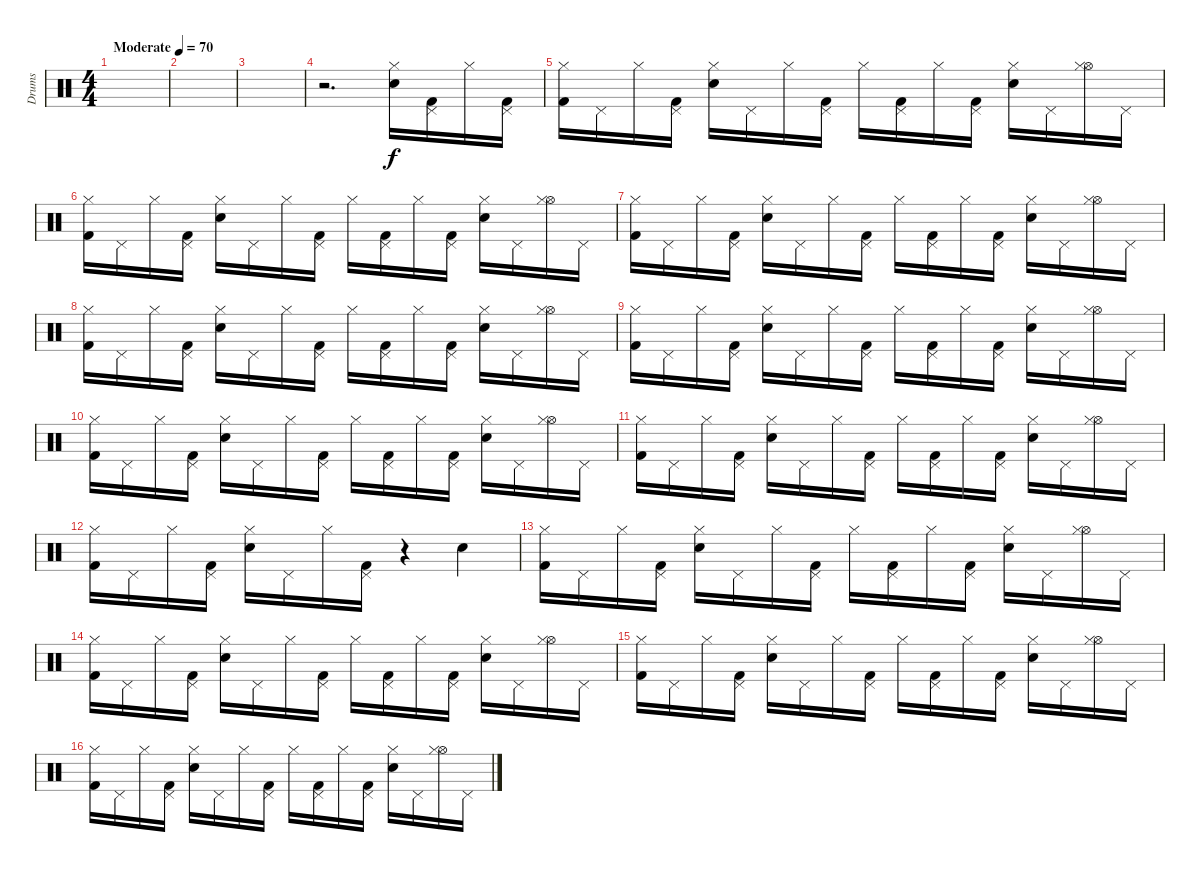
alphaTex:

\track ("Drums" "Drums") {instrument percussion}
\staff {score}
\articulation defaults
\ts (4 4)
\tempo (70 "Moderate")
\clef neutral
\ks c
|
|
|
r.2{d} ("Electric Snare (hit)" "Hi-Hat (closed)").16 ("Kick (hit) 2" "Pedal Hi-Hat (hit)").16 "Hi-Hat (closed)".16 ("Kick (hit) 2" "Pedal Hi-Hat (hit)").16 |
("Hi-Hat (closed)" "Kick (hit) 2").16 "Pedal Hi-Hat (hit)".16 "Hi-Hat (closed)".16 ("Pedal Hi-Hat (hit)" "Kick (hit) 2").16 ("Hi-Hat (closed)" "Electric Snare (hit)").16 "Pedal Hi-Hat (hit)".16 "Hi-Hat (closed)".16 ("Pedal Hi-Hat (hit)" "Kick (hit) 2").16 "Hi-Hat (closed)".16 ("Pedal Hi-Hat (hit)" "Kick (hit) 2").16 "Hi-Hat (closed)".16 ("Pedal Hi-Hat (hit)" "Kick (hit) 2").16 ("Hi-Hat (closed)" "Electric Snare (hit)").16 "Pedal Hi-Hat (hit)".16 ("Hi-Hat (open)" "Hi-Hat (closed)").16 "Pedal Hi-Hat (hit)".16 |
("Hi-Hat (closed)" "Kick (hit) 2").16 "Pedal Hi-Hat (hit)".16 "Hi-Hat (closed)".16 ("Pedal Hi-Hat (hit)" "Kick (hit) 2").16 ("Hi-Hat (closed)" "Electric Snare (hit)").16 "Pedal Hi-Hat (hit)".16 "Hi-Hat (closed)".16 ("Pedal Hi-Hat (hit)" "Kick (hit) 2").16 "Hi-Hat (closed)".16 ("Pedal Hi-Hat (hit)" "Kick (hit) 2").16 "Hi-Hat (closed)".16 ("Pedal Hi-Hat (hit)" "Kick (hit) 2").16 ("Hi-Hat (closed)" "Electric Snare (hit)").16 "Pedal Hi-Hat (hit)".16 ("Hi-Hat (open)" "Hi-Hat (closed)").16 "Pedal Hi-Hat (hit)".16 |
("Hi-Hat (closed)" "Kick (hit) 2").16 "Pedal Hi-Hat (hit)".16 "Hi-Hat (closed)".16 ("Pedal Hi-Hat (hit)" "Kick (hit) 2").16 ("Hi-Hat (closed)" "Electric Snare (hit)").16 "Pedal Hi-Hat (hit)".16 "Hi-Hat (closed)".16 ("Pedal Hi-Hat (hit)" "Kick (hit) 2").16 "Hi-Hat (closed)".16 ("Pedal Hi-Hat (hit)" "Kick (hit) 2").16 "Hi-Hat (closed)".16 ("Pedal Hi-Hat (hit)" "Kick (hit) 2").16 ("Hi-Hat (closed)" "Electric Snare (hit)").16 "Pedal Hi-Hat (hit)".16 ("Hi-Hat (open)" "Hi-Hat (closed)").16 "Pedal Hi-Hat (hit)".16 |
("Hi-Hat (closed)" "Kick (hit) 2").16 "Pedal Hi-Hat (hit)".16 "Hi-Hat (closed)".16 ("Pedal Hi-Hat (hit)" "Kick (hit) 2").16 ("Hi-Hat (closed)" "Electric Snare (hit)").16 "Pedal Hi-Hat (hit)".16 "Hi-Hat (closed)".16 ("Pedal Hi-Hat (hit)" "Kick (hit) 2").16 "Hi-Hat (closed)".16 ("Pedal Hi-Hat (hit)" "Kick (hit) 2").16 "Hi-Hat (closed)".16 ("Pedal Hi-Hat (hit)" "Kick (hit) 2").16 ("Hi-Hat (closed)" "Electric Snare (hit)").16 "Pedal Hi-Hat (hit)".16 ("Hi-Hat (open)" "Hi-Hat (closed)").16 "Pedal Hi-Hat (hit)".16 |
("Hi-Hat (closed)" "Kick (hit) 2").16 "Pedal Hi-Hat (hit)".16 "Hi-Hat (closed)".16 ("Pedal Hi-Hat (hit)" "Kick (hit) 2").16 ("Hi-Hat (closed)" "Electric Snare (hit)").16 "Pedal Hi-Hat (hit)".16 "Hi-Hat (closed)".16 ("Pedal Hi-Hat (hit)" "Kick (hit) 2").16 "Hi-Hat (closed)".16 ("Pedal Hi-Hat (hit)" "Kick (hit) 2").16 "Hi-Hat (closed)".16 ("Pedal Hi-Hat (hit)" "Kick (hit) 2").16 ("Hi-Hat (closed)" "Electric Snare (hit)").16 "Pedal Hi-Hat (hit)".16 ("Hi-Hat (open)" "Hi-Hat (closed)").16 "Pedal Hi-Hat (hit)".16 |
("Hi-Hat (closed)" "Kick (hit) 2").16 "Pedal Hi-Hat (hit)".16 "Hi-Hat (closed)".16 ("Pedal Hi-Hat (hit)" "Kick (hit) 2").16 ("Hi-Hat (closed)" "Electric Snare (hit)").16 "Pedal Hi-Hat (hit)".16 "Hi-Hat (closed)".16 ("Pedal Hi-Hat (hit)" "Kick (hit) 2").16 "Hi-Hat (closed)".16 ("Pedal Hi-Hat (hit)" "Kick (hit) 2").16 "Hi-Hat (closed)".16 ("Pedal Hi-Hat (hit)" "Kick (hit) 2").16 ("Hi-Hat (closed)" "Electric Snare (hit)").16 "Pedal Hi-Hat (hit)".16 ("Hi-Hat (open)" "Hi-Hat (closed)").16 "Pedal Hi-Hat (hit)".16 |
("Hi-Hat (closed)" "Kick (hit) 2").16 "Pedal Hi-Hat (hit)".16 "Hi-Hat (closed)".16 ("Pedal Hi-Hat (hit)" "Kick (hit) 2").16 ("Hi-Hat (closed)" "Electric Snare (hit)").16 "Pedal Hi-Hat (hit)".16 "Hi-Hat (closed)".16 ("Pedal Hi-Hat (hit)" "Kick (hit) 2").16 "Hi-Hat (closed)".16 ("Pedal Hi-Hat (hit)" "Kick (hit) 2").16 "Hi-Hat (closed)".16 ("Pedal Hi-Hat (hit)" "Kick (hit) 2").16 ("Hi-Hat (closed)" "Electric Snare (hit)").16 "Pedal Hi-Hat (hit)".16 ("Hi-Hat (open)" "Hi-Hat (closed)").16 "Pedal Hi-Hat (hit)".16 |
("Hi-Hat (closed)" "Kick (hit) 2").16 "Pedal Hi-Hat (hit)".16 "Hi-Hat (closed)".16 ("Pedal Hi-Hat (hit)" "Kick (hit) 2").16 ("Hi-Hat (closed)" "Electric Snare (hit)").16 "Pedal Hi-Hat (hit)".16 "Hi-Hat (closed)".16 ("Pedal Hi-Hat (hit)" "Kick (hit) 2").16 r.4 "Electric Snare (hit)".4 |
("Hi-Hat (closed)" "Kick (hit) 2").16 "Pedal Hi-Hat (hit)".16 "Hi-Hat (closed)".16 ("Pedal Hi-Hat (hit)" "Kick (hit) 2").16 ("Hi-Hat (closed)" "Electric Snare (hit)").16 "Pedal Hi-Hat (hit)".16 "Hi-Hat (closed)".16 ("Pedal Hi-Hat (hit)" "Kick (hit) 2").16 "Hi-Hat (closed)".16 ("Pedal Hi-Hat (hit)" "Kick (hit) 2").16 "Hi-Hat (closed)".16 ("Pedal Hi-Hat (hit)" "Kick (hit) 2").16 ("Hi-Hat (closed)" "Electric Snare (hit)").16 "Pedal Hi-Hat (hit)".16 ("Hi-Hat (open)" "Hi-Hat (closed)").16 "Pedal Hi-Hat (hit)".16 |
("Hi-Hat (closed)" "Kick (hit) 2").16 "Pedal Hi-Hat (hit)".16 "Hi-Hat (closed)".16 ("Pedal Hi-Hat (hit)" "Kick (hit) 2").16 ("Hi-Hat (closed)" "Electric Snare (hit)").16 "Pedal Hi-Hat (hit)".16 "Hi-Hat (closed)".16 ("Pedal Hi-Hat (hit)" "Kick (hit) 2").16 "Hi-Hat (closed)".16 ("Pedal Hi-Hat (hit)" "Kick (hit) 2").16 "Hi-Hat (closed)".16 ("Pedal Hi-Hat (hit)" "Kick (hit) 2").16 ("Hi-Hat (closed)" "Electric Snare (hit)").16 "Pedal Hi-Hat (hit)".16 ("Hi-Hat (open)" "Hi-Hat (closed)").16 "Pedal Hi-Hat (hit)".16 |
("Hi-Hat (closed)" "Kick (hit) 2").16 "Pedal Hi-Hat (hit)".16 "Hi-Hat (closed)".16 ("Pedal Hi-Hat (hit)" "Kick (hit) 2").16 ("Hi-Hat (closed)" "Electric Snare (hit)").16 "Pedal Hi-Hat (hit)".16 "Hi-Hat (closed)".16 ("Pedal Hi-Hat (hit)" "Kick (hit) 2").16 "Hi-Hat (closed)".16 ("Pedal Hi-Hat (hit)" "Kick (hit) 2").16 "Hi-Hat (closed)".16 ("Pedal Hi-Hat (hit)" "Kick (hit) 2").16 ("Hi-Hat (closed)" "Electric Snare (hit)").16 "Pedal Hi-Hat (hit)".16 ("Hi-Hat (open)" "Hi-Hat (closed)").16 "Pedal Hi-Hat (hit)".16 |
("Hi-Hat (closed)" "Kick (hit) 2").16 "Pedal Hi-Hat (hit)".16 "Hi-Hat (closed)".16 ("Pedal Hi-Hat (hit)" "Kick (hit) 2").16 ("Hi-Hat (closed)" "Electric Snare (hit)").16 "Pedal Hi-Hat (hit)".16 "Hi-Hat (closed)".16 ("Pedal Hi-Hat (hit)" "Kick (hit) 2").16 "Hi-Hat (closed)".16 ("Pedal Hi-Hat (hit)" "Kick (hit) 2").16 "Hi-Hat (closed)".16 ("Pedal Hi-Hat (hit)" "Kick (hit) 2").16 ("Hi-Hat (closed)" "Electric Snare (hit)").16 "Pedal Hi-Hat (hit)".16 ("Hi-Hat (open)" "Hi-Hat (closed)").16 "Pedal Hi-Hat (hit)".16
